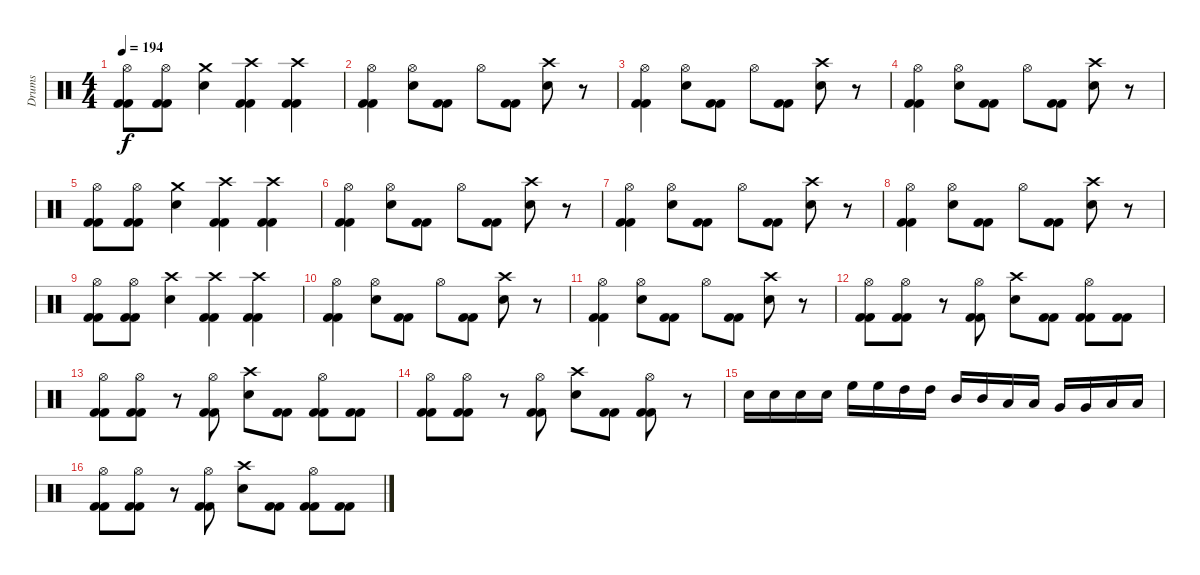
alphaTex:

\track ("Drums" "Drums") {instrument percussion}
\staff {score}
\articulation defaults
\ts (4 4)
\tempo 194
\clef neutral
\ks c
("Hi-Hat (open)" "Kick (hit) 2" "Kick (hit) 2").8{dy f} ("Hi-Hat (open)" "Kick (hit) 2" "Kick (hit) 2").8 ("Crash medium (hit)" "Electric Snare (hit)").4 ("Crash high (hit)" "Kick (hit) 2" "Kick (hit) 2").4 ("Crash high (hit)" "Kick (hit) 2" "Kick (hit) 2").4 |
("Hi-Hat (open)" "Kick (hit) 2" "Kick (hit) 2").4 ("Hi-Hat (open)" "Electric Snare (hit)").8 ("Kick (hit) 2" "Kick (hit) 2").8 "Hi-Hat (open)".8 ("Kick (hit) 2" "Kick (hit) 2").8 ("Crash high (hit)" "Electric Snare (hit)").8 r.8 |
("Hi-Hat (open)" "Kick (hit) 2" "Kick (hit) 2").4 ("Hi-Hat (open)" "Electric Snare (hit)").8 ("Kick (hit) 2" "Kick (hit) 2").8 "Hi-Hat (open)".8 ("Kick (hit) 2" "Kick (hit) 2").8 ("Crash high (hit)" "Electric Snare (hit)").8 r.8 |
("Hi-Hat (open)" "Kick (hit) 2" "Kick (hit) 2").4 ("Hi-Hat (open)" "Electric Snare (hit)").8 ("Kick (hit) 2" "Kick (hit) 2").8 "Hi-Hat (open)".8 ("Kick (hit) 2" "Kick (hit) 2").8 ("Crash high (hit)" "Electric Snare (hit)").8 r.8 |
("Hi-Hat (open)" "Kick (hit) 2" "Kick (hit) 2").8 ("Hi-Hat (open)" "Kick (hit) 2" "Kick (hit) 2").8 ("Crash medium (hit)" "Electric Snare (hit)").4 ("Crash high (hit)" "Kick (hit) 2" "Kick (hit) 2").4 ("Crash high (hit)" "Kick (hit) 2" "Kick (hit) 2").4 |
("Hi-Hat (open)" "Kick (hit) 2" "Kick (hit) 2").4 ("Hi-Hat (open)" "Electric Snare (hit)").8 ("Kick (hit) 2" "Kick (hit) 2").8 "Hi-Hat (open)".8 ("Kick (hit) 2" "Kick (hit) 2").8 ("Crash high (hit)" "Electric Snare (hit)").8 r.8 |
("Hi-Hat (open)" "Kick (hit) 2" "Kick (hit) 2").4 ("Hi-Hat (open)" "Electric Snare (hit)").8 ("Kick (hit) 2" "Kick (hit) 2").8 "Hi-Hat (open)".8 ("Kick (hit) 2" "Kick (hit) 2").8 ("Crash high (hit)" "Electric Snare (hit)").8 r.8 |
("Hi-Hat (open)" "Kick (hit) 2" "Kick (hit) 2").4 ("Hi-Hat (open)" "Electric Snare (hit)").8 ("Kick (hit) 2" "Kick (hit) 2").8 "Hi-Hat (open)".8 ("Kick (hit) 2" "Kick (hit) 2").8 ("Crash high (hit)" "Electric Snare (hit)").8 r.8 |
("Hi-Hat (open)" "Kick (hit) 2" "Kick (hit) 2").8 ("Hi-Hat (open)" "Kick (hit) 2" "Kick (hit) 2").8 ("Crash high (hit)" "Electric Snare (hit)").4 ("Crash high (hit)" "Kick (hit) 2" "Kick (hit) 2").4 ("Crash high (hit)" "Kick (hit) 2" "Kick (hit) 2").4 |
("Hi-Hat (open)" "Kick (hit) 2" "Kick (hit) 2").4 ("Hi-Hat (open)" "Electric Snare (hit)").8 ("Kick (hit) 2" "Kick (hit) 2").8 "Hi-Hat (open)".8 ("Kick (hit) 2" "Kick (hit) 2").8 ("Crash high (hit)" "Electric Snare (hit)").8 r.8 |
("Hi-Hat (open)" "Kick (hit) 2" "Kick (hit) 2").4 ("Hi-Hat (open)" "Electric Snare (hit)").8 ("Kick (hit) 2" "Kick (hit) 2").8 "Hi-Hat (open)".8 ("Kick (hit) 2" "Kick (hit) 2").8 ("Crash high (hit)" "Electric Snare (hit)").8 r.8 |
("Hi-Hat (open)" "Kick (hit) 2" "Kick (hit) 2").8 ("Hi-Hat (open)" "Kick (hit) 2" "Kick (hit) 2").8 r.8 ("Hi-Hat (open)" "Kick (hit) 2" "Kick (hit) 2").8 ("Crash high (hit)" "Electric Snare (hit)").8 ("Kick (hit) 2" "Kick (hit) 2").8 ("Hi-Hat (open)" "Kick (hit) 2" "Kick (hit) 2").8 ("Kick (hit) 2" "Kick (hit) 2").8 |
("Hi-Hat (open)" "Kick (hit) 2" "Kick (hit) 2").8 ("Hi-Hat (open)" "Kick (hit) 2" "Kick (hit) 2").8 r.8 ("Hi-Hat (open)" "Kick (hit) 2" "Kick (hit) 2").8 ("Crash high (hit)" "Electric Snare (hit)").8 ("Kick (hit) 2" "Kick (hit) 2").8 ("Hi-Hat (open)" "Kick (hit) 2" "Kick (hit) 2").8 ("Kick (hit) 2" "Kick (hit) 2").8 |
("Hi-Hat (open)" "Kick (hit) 2" "Kick (hit) 2").8 ("Hi-Hat (open)" "Kick (hit) 2" "Kick (hit) 2").8 r.8 ("Hi-Hat (open)" "Kick (hit) 2" "Kick (hit) 2").8 ("Crash high (hit)" "Electric Snare (hit)").8 ("Kick (hit) 2" "Kick (hit) 2").8 ("Hi-Hat (open)" "Kick (hit) 2" "Kick (hit) 2").8 r.8 |
"Electric Snare (hit)".16 "Electric Snare (hit)".16 "Electric Snare (hit)".16 "Electric Snare (hit)".16 "High Floor Tom (hit)".16 "High Floor Tom (hit)".16 "High Tom (hit)".16 "High Tom (hit)".16 "Mid Tom (hit)".16 "Mid Tom (hit)".16 "Low Tom (hit)".16 "Low Tom (hit)".16 "Very Low Tom (hit)".16 "Very Low Tom (hit)".16 "Low Floor Tom (hit)".16 "Low Floor Tom (hit)".16 |
("Hi-Hat (open)" "Kick (hit) 2" "Kick (hit) 2").8 ("Hi-Hat (open)" "Kick (hit) 2" "Kick (hit) 2").8 r.8 ("Hi-Hat (open)" "Kick (hit) 2" "Kick (hit) 2").8 ("Crash high (hit)" "Electric Snare (hit)").8 ("Kick (hit) 2" "Kick (hit) 2").8 ("Hi-Hat (open)" "Kick (hit) 2" "Kick (hit) 2").8 ("Kick (hit) 2" "Kick (hit) 2").8
